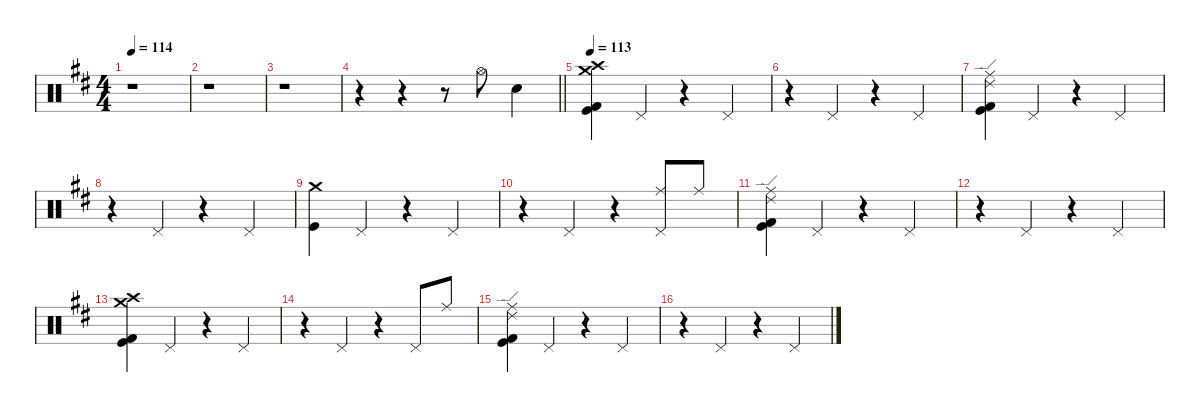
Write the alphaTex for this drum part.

\defaultSystemsLayout 4
\hideDynamics
\bracketExtendMode nobrackets
\singleTrackTrackNamePolicy hidden
\multiTrackTrackNamePolicy hidden
\firstSystemTrackNameMode fullname
\firstSystemTrackNameOrientation horizontal
\otherSystemsTrackNameOrientation horizontal
\track ("Aaron Harris" "drm.") {instrument percussion}
\staff {score}
\articulation defaults
\ts (4 4)
\tempo 114
\clef neutral
\ks bminor
r.1{dy f beam Down} |
r.1{beam Down} |
r.1{beam Down} |
\barLineRight lightlight
r.4{beam Down} r.4{beam Down} r.8{beam Down} "Hi-Hat (open)"{acc forcenatural}.8{beam Down} "Snare (hit) 2"{acc forcenatural}.4{dy ff beam Down} |
\tempo 113
("Crash medium (hit)"{acc forcenatural} "Crash high (hit)"{acc forcenatural} "Kick (hit) 2"{acc forcenatural} "Kick (hit)"{acc forcenatural}).4{dy f beam Down} "Pedal Hi-Hat (hit)"{acc forcenatural}.4{dy mf beam Up} r.4{beam Up} "Pedal Hi-Hat (hit)"{acc forcenatural}.4{beam Up} |
r.4{beam Down} "Pedal Hi-Hat (hit)"{acc forcenatural}.4{beam Up} r.4{beam Up} "Pedal Hi-Hat (hit)"{acc forcenatural}.4{beam Up} |
("Ride (middle)"{acc forcenatural} "Ride (edge) 2"{acc forcenatural} "Kick (hit) 2"{acc forcenatural} "Kick (hit)"{acc forcenatural}).4{beam Down} "Pedal Hi-Hat (hit)"{acc forcenatural}.4{beam Up} r.4{beam Up} "Pedal Hi-Hat (hit)"{acc forcenatural}.4{beam Up} |
r.4{beam Down} "Pedal Hi-Hat (hit)"{acc forcenatural}.4{dy f beam Up} r.4{beam Up} "Pedal Hi-Hat (hit)"{acc forcenatural}.4{beam Up} |
("Crash medium (hit)"{acc forcenatural} "Kick (hit)"{acc forcenatural}).4{dy mf beam Down} "Pedal Hi-Hat (hit)"{acc forcenatural}.4{beam Up} r.4{beam Up} "Pedal Hi-Hat (hit)"{acc forcenatural}.4{beam Up} |
r.4{beam Down} "Pedal Hi-Hat (hit)"{acc forcenatural}.4{beam Up} r.4{beam Up} ("Ride (middle)"{acc forcenatural} "Pedal Hi-Hat (hit)"{acc forcenatural}).8{dy mp beam Up} "Ride (middle)"{acc forcenatural}.8{dy f beam Up} |
("Ride (middle)"{acc forcenatural} "Ride (edge) 2"{acc forcenatural} "Kick (hit) 2"{acc forcenatural} "Kick (hit)"{acc forcenatural}).4{dy mf beam Down} "Pedal Hi-Hat (hit)"{acc forcenatural}.4{beam Up} r.4{beam Up} "Pedal Hi-Hat (hit)"{acc forcenatural}.4{beam Up} |
r.4{beam Down} "Pedal Hi-Hat (hit)"{acc forcenatural}.4{dy f beam Up} r.4{beam Up} "Pedal Hi-Hat (hit)"{acc forcenatural}.4{beam Up} |
("Crash medium (hit)"{acc forcenatural} "Crash high (hit)"{acc forcenatural} "Kick (hit) 2"{acc forcenatural} "Kick (hit)"{acc forcenatural}).4{beam Down} "Pedal Hi-Hat (hit)"{acc forcenatural}.4{dy mf beam Up} r.4{beam Up} "Pedal Hi-Hat (hit)"{acc forcenatural}.4{beam Up} |
r.4{beam Down} "Pedal Hi-Hat (hit)"{acc forcenatural}.4{beam Up} r.4{beam Up} "Pedal Hi-Hat (hit)"{acc forcenatural}.8{beam Up} "Ride (middle)"{acc forcenatural}.8{dy mp beam Up} |
("Ride (middle)"{acc forcenatural} "Ride (edge) 2"{acc forcenatural} "Kick (hit) 2"{acc forcenatural} "Kick (hit)"{acc forcenatural}).4{dy mf beam Down} "Pedal Hi-Hat (hit)"{acc forcenatural}.4{beam Up} r.4{beam Up} "Pedal Hi-Hat (hit)"{acc forcenatural}.4{beam Up} |
r.4{beam Down} "Pedal Hi-Hat (hit)"{acc forcenatural}.4{dy f beam Up} r.4{beam Up} "Pedal Hi-Hat (hit)"{acc forcenatural}.4{beam Up}
